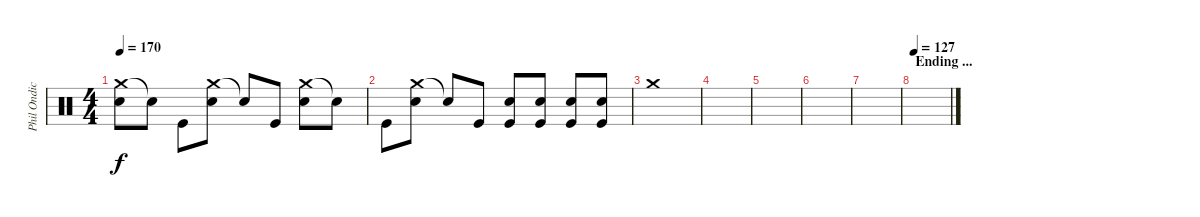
\track ("Phil Ondich (Drums)" "Phil Ondic") {instrument percussion}
\staff {score}
\articulation defaults
\ts (4 4)
\tempo 170
\clef neutral
\ks c
("Crash medium (hit)" "Electric Snare (hit)").8{dy f} "Snare (hit)"{t}.8 "Kick (hit)".8 ("Crash medium (hit)" "Electric Snare (hit)").8 "Snare (hit)"{t}.8 "Kick (hit)".8 ("Crash medium (hit)" "Electric Snare (hit)").8 "Snare (hit)"{t}.8 |
"Kick (hit)".8 ("Crash medium (hit)" "Electric Snare (hit)").8 "Snare (hit)"{t}.8 "Kick (hit)".8 ("Electric Snare (hit)" "Kick (hit)").8 ("Electric Snare (hit)" "Kick (hit)").8 ("Electric Snare (hit)" "Kick (hit)").8 ("Electric Snare (hit)" "Kick (hit)").8 |
"Crash medium (hit)".1 |
|
|
|
|
\section ("" "Ending ...")
\tempo 127
